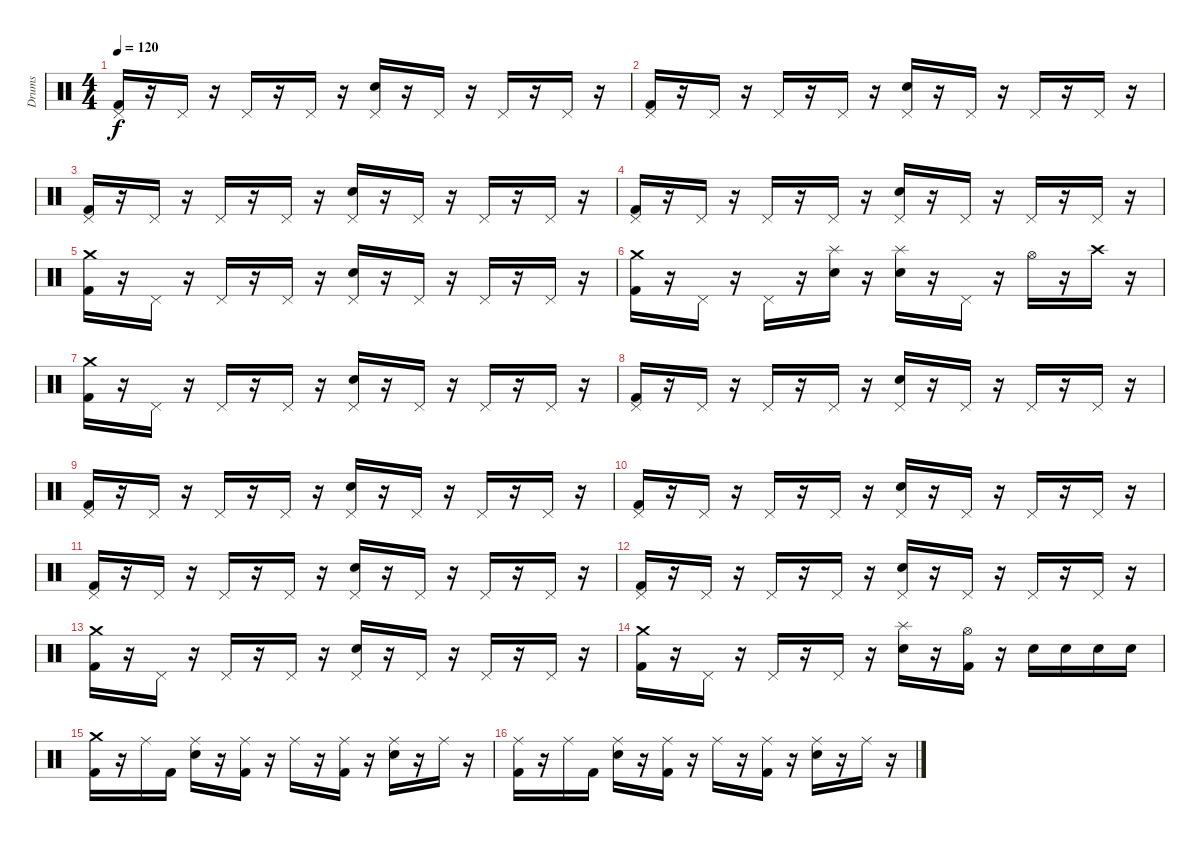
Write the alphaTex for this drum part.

\track ("Drums" "Drums") {instrument percussion}
\staff {score}
\articulation defaults
\ts (4 4)
\tempo 120
\clef neutral
\ks c
("Pedal Hi-Hat (hit)" "Kick (hit) 2").16{dy f} r.16 "Pedal Hi-Hat (hit)".16 r.16 "Pedal Hi-Hat (hit)".16 r.16 "Pedal Hi-Hat (hit)".16 r.16 ("Pedal Hi-Hat (hit)" "Electric Snare (hit)").16 r.16 "Pedal Hi-Hat (hit)".16 r.16 "Pedal Hi-Hat (hit)".16 r.16 "Pedal Hi-Hat (hit)".16 r.16 |
("Pedal Hi-Hat (hit)" "Kick (hit) 2").16 r.16 "Pedal Hi-Hat (hit)".16 r.16 "Pedal Hi-Hat (hit)".16 r.16 "Pedal Hi-Hat (hit)".16 r.16 ("Pedal Hi-Hat (hit)" "Electric Snare (hit)").16 r.16 "Pedal Hi-Hat (hit)".16 r.16 "Pedal Hi-Hat (hit)".16 r.16 "Pedal Hi-Hat (hit)".16 r.16 |
("Pedal Hi-Hat (hit)" "Kick (hit) 2").16 r.16 "Pedal Hi-Hat (hit)".16 r.16 "Pedal Hi-Hat (hit)".16 r.16 "Pedal Hi-Hat (hit)".16 r.16 ("Pedal Hi-Hat (hit)" "Electric Snare (hit)").16 r.16 "Pedal Hi-Hat (hit)".16 r.16 "Pedal Hi-Hat (hit)".16 r.16 "Pedal Hi-Hat (hit)".16 r.16 |
("Pedal Hi-Hat (hit)" "Kick (hit) 2").16 r.16 "Pedal Hi-Hat (hit)".16 r.16 "Pedal Hi-Hat (hit)".16 r.16 "Pedal Hi-Hat (hit)".16 r.16 ("Pedal Hi-Hat (hit)" "Electric Snare (hit)").16 r.16 "Pedal Hi-Hat (hit)".16 r.16 "Pedal Hi-Hat (hit)".16 r.16 "Pedal Hi-Hat (hit)".16 r.16 |
("Crash medium (hit)" "Kick (hit) 2").16 r.16 "Pedal Hi-Hat (hit)".16 r.16 "Pedal Hi-Hat (hit)".16 r.16 "Pedal Hi-Hat (hit)".16 r.16 ("Pedal Hi-Hat (hit)" "Electric Snare (hit)").16 r.16 "Pedal Hi-Hat (hit)".16 r.16 "Pedal Hi-Hat (hit)".16 r.16 "Pedal Hi-Hat (hit)".16 r.16 |
("Crash medium (hit)" "Kick (hit) 2").16 r.16 "Pedal Hi-Hat (hit)".16 r.16 "Pedal Hi-Hat (hit)".16 r.16 ("Splash (hit)" "Electric Snare (hit)").16 r.16 ("Splash (hit)" "Electric Snare (hit)").16 r.16 "Pedal Hi-Hat (hit)".16 r.16 "Hi-Hat (open)".16 r.16 "Crash high (hit)".16 r.16 |
("Crash medium (hit)" "Kick (hit) 2").16 r.16 "Pedal Hi-Hat (hit)".16 r.16 "Pedal Hi-Hat (hit)".16 r.16 "Pedal Hi-Hat (hit)".16 r.16 ("Pedal Hi-Hat (hit)" "Electric Snare (hit)").16 r.16 "Pedal Hi-Hat (hit)".16 r.16 "Pedal Hi-Hat (hit)".16 r.16 "Pedal Hi-Hat (hit)".16 r.16 |
("Pedal Hi-Hat (hit)" "Kick (hit) 2").16 r.16 "Pedal Hi-Hat (hit)".16 r.16 "Pedal Hi-Hat (hit)".16 r.16 "Pedal Hi-Hat (hit)".16 r.16 ("Pedal Hi-Hat (hit)" "Electric Snare (hit)").16 r.16 "Pedal Hi-Hat (hit)".16 r.16 "Pedal Hi-Hat (hit)".16 r.16 "Pedal Hi-Hat (hit)".16 r.16 |
("Pedal Hi-Hat (hit)" "Kick (hit) 2").16 r.16 "Pedal Hi-Hat (hit)".16 r.16 "Pedal Hi-Hat (hit)".16 r.16 "Pedal Hi-Hat (hit)".16 r.16 ("Pedal Hi-Hat (hit)" "Electric Snare (hit)").16 r.16 "Pedal Hi-Hat (hit)".16 r.16 "Pedal Hi-Hat (hit)".16 r.16 "Pedal Hi-Hat (hit)".16 r.16 |
("Pedal Hi-Hat (hit)" "Kick (hit) 2").16 r.16 "Pedal Hi-Hat (hit)".16 r.16 "Pedal Hi-Hat (hit)".16 r.16 "Pedal Hi-Hat (hit)".16 r.16 ("Pedal Hi-Hat (hit)" "Electric Snare (hit)").16 r.16 "Pedal Hi-Hat (hit)".16 r.16 "Pedal Hi-Hat (hit)".16 r.16 "Pedal Hi-Hat (hit)".16 r.16 |
("Pedal Hi-Hat (hit)" "Kick (hit) 2").16 r.16 "Pedal Hi-Hat (hit)".16 r.16 "Pedal Hi-Hat (hit)".16 r.16 "Pedal Hi-Hat (hit)".16 r.16 ("Pedal Hi-Hat (hit)" "Electric Snare (hit)").16 r.16 "Pedal Hi-Hat (hit)".16 r.16 "Pedal Hi-Hat (hit)".16 r.16 "Pedal Hi-Hat (hit)".16 r.16 |
("Pedal Hi-Hat (hit)" "Kick (hit) 2").16 r.16 "Pedal Hi-Hat (hit)".16 r.16 "Pedal Hi-Hat (hit)".16 r.16 "Pedal Hi-Hat (hit)".16 r.16 ("Pedal Hi-Hat (hit)" "Electric Snare (hit)").16 r.16 "Pedal Hi-Hat (hit)".16 r.16 "Pedal Hi-Hat (hit)".16 r.16 "Pedal Hi-Hat (hit)".16 r.16 |
("Crash medium (hit)" "Kick (hit) 2").16 r.16 "Pedal Hi-Hat (hit)".16 r.16 "Pedal Hi-Hat (hit)".16 r.16 "Pedal Hi-Hat (hit)".16 r.16 ("Pedal Hi-Hat (hit)" "Electric Snare (hit)").16 r.16 "Pedal Hi-Hat (hit)".16 r.16 "Pedal Hi-Hat (hit)".16 r.16 "Pedal Hi-Hat (hit)".16 r.16 |
("Crash medium (hit)" "Kick (hit) 2").16 r.16 "Pedal Hi-Hat (hit)".16 r.16 "Pedal Hi-Hat (hit)".16 r.16 "Pedal Hi-Hat (hit)".16 r.16 ("Splash (hit)" "Electric Snare (hit)").16 r.16 ("Hi-Hat (open)" "Kick (hit) 2").16 r.16 "Electric Snare (hit)".16 "Electric Snare (hit)".16 "Electric Snare (hit)".16 "Electric Snare (hit)".16 |
\section ("" "")
("Crash medium (hit)" "Kick (hit) 2").16 r.16 "Ride (middle)".16 "Kick (hit) 2".16 ("Ride (middle)" "Electric Snare (hit)").16 r.16 ("Ride (middle)" "Kick (hit) 2").16 r.16 "Ride (middle)".16 r.16 ("Ride (middle)" "Kick (hit) 2").16 r.16 ("Ride (middle)" "Electric Snare (hit)").16 r.16 "Ride (middle)".16 r.16 |
("Ride (middle)" "Kick (hit) 2").16 r.16 "Ride (middle)".16 "Kick (hit) 2".16 ("Ride (middle)" "Electric Snare (hit)").16 r.16 ("Ride (middle)" "Kick (hit) 2").16 r.16 "Ride (middle)".16 r.16 ("Ride (middle)" "Kick (hit) 2").16 r.16 ("Ride (middle)" "Electric Snare (hit)").16 r.16 "Ride (middle)".16 r.16
